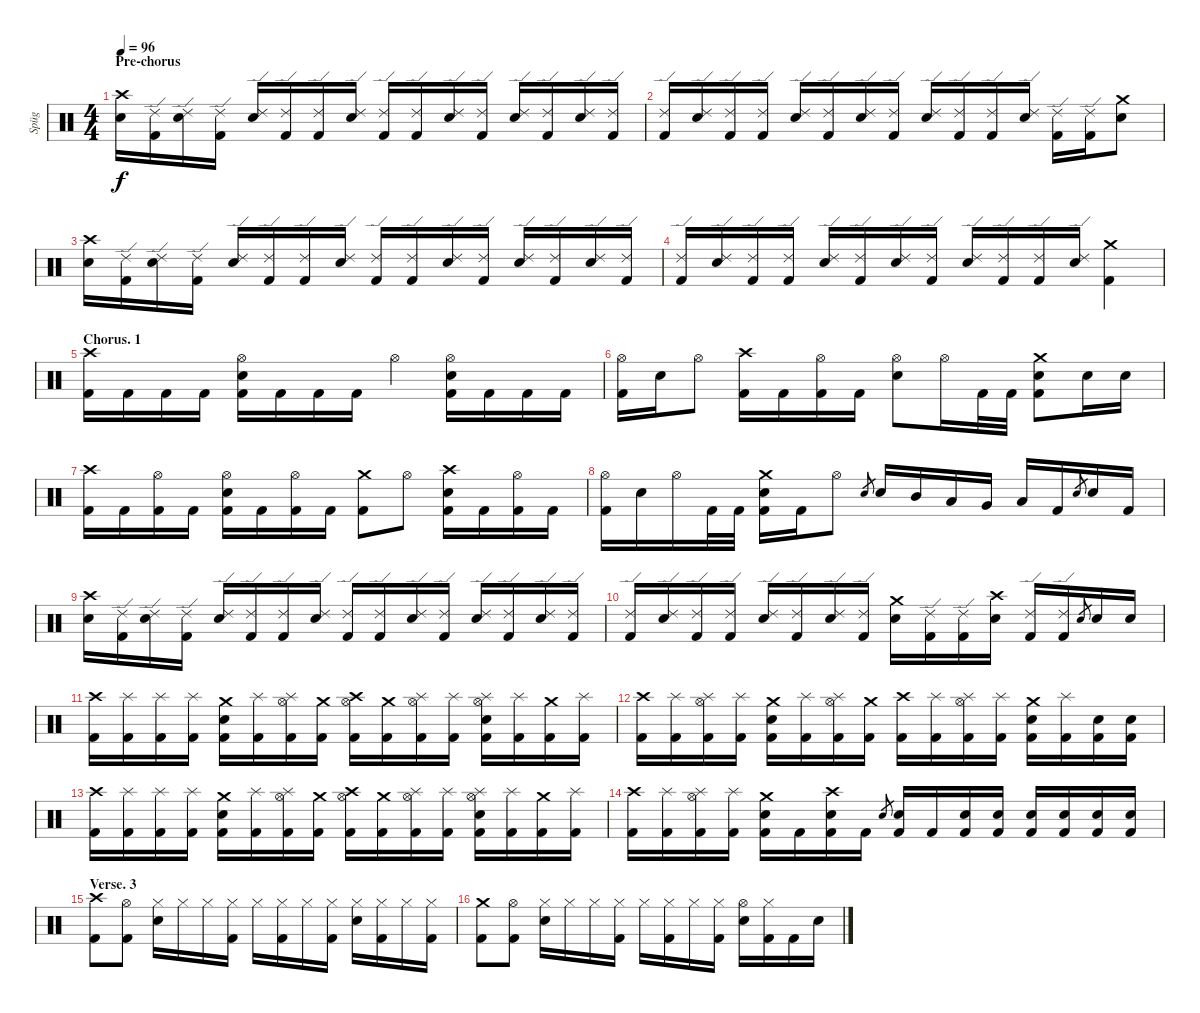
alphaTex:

\track ("Spüg" "Spüg") {instrument percussion}
\staff {score}
\articulation defaults
\ts (4 4)
\section ("" "Pre-chorus")
\tempo 96
\clef neutral
\ks c
("Crash high (hit)" "Electric Snare (hit)").16{dy f} ("Ride (edge) 2" "Kick (hit) 2").16 ("Ride (edge) 2" "Electric Snare (hit)").16 ("Ride (edge) 2" "Kick (hit) 2").16 ("Ride (edge) 2" "Electric Snare (hit)").16 ("Ride (edge) 2" "Kick (hit) 2").16 ("Ride (edge) 2" "Kick (hit) 2").16 ("Ride (edge) 2" "Electric Snare (hit)").16 ("Ride (edge) 2" "Kick (hit) 2").16 ("Ride (edge) 2" "Kick (hit) 2").16 ("Ride (edge) 2" "Electric Snare (hit)").16 ("Ride (edge) 2" "Kick (hit) 2").16 ("Ride (edge) 2" "Electric Snare (hit)").16 ("Ride (edge) 2" "Kick (hit) 2").16 ("Ride (edge) 2" "Electric Snare (hit)").16 ("Ride (edge) 2" "Kick (hit) 2").16 |
("Ride (edge) 2" "Kick (hit) 2").16 ("Ride (edge) 2" "Electric Snare (hit)").16 ("Ride (edge) 2" "Kick (hit) 2").16 ("Ride (edge) 2" "Kick (hit) 2").16 ("Ride (edge) 2" "Electric Snare (hit)").16 ("Ride (edge) 2" "Kick (hit) 2").16 ("Ride (edge) 2" "Electric Snare (hit)").16 ("Ride (edge) 2" "Kick (hit) 2").16 ("Ride (edge) 2" "Electric Snare (hit)").16 ("Ride (edge) 2" "Kick (hit) 2").16 ("Ride (edge) 2" "Kick (hit) 2").16 ("Ride (edge) 2" "Electric Snare (hit)").16 ("Ride (edge) 2" "Kick (hit) 2").16 ("Ride (edge) 2" "Kick (hit) 2").16 ("Crash medium (hit)" "Electric Snare (hit)").8 |
("Crash high (hit)" "Electric Snare (hit)").16 ("Ride (edge) 2" "Kick (hit) 2").16 ("Ride (edge) 2" "Electric Snare (hit)").16 ("Ride (edge) 2" "Kick (hit) 2").16 ("Ride (edge) 2" "Electric Snare (hit)").16 ("Ride (edge) 2" "Kick (hit) 2").16 ("Ride (edge) 2" "Kick (hit) 2").16 ("Ride (edge) 2" "Electric Snare (hit)").16 ("Ride (edge) 2" "Kick (hit) 2").16 ("Ride (edge) 2" "Kick (hit) 2").16 ("Ride (edge) 2" "Electric Snare (hit)").16 ("Ride (edge) 2" "Kick (hit) 2").16 ("Ride (edge) 2" "Electric Snare (hit)").16 ("Ride (edge) 2" "Kick (hit) 2").16 ("Ride (edge) 2" "Electric Snare (hit)").16 ("Ride (edge) 2" "Kick (hit) 2").16 |
("Ride (edge) 2" "Kick (hit) 2").16 ("Ride (edge) 2" "Electric Snare (hit)").16 ("Ride (edge) 2" "Kick (hit) 2").16 ("Ride (edge) 2" "Kick (hit) 2").16 ("Ride (edge) 2" "Electric Snare (hit)").16 ("Ride (edge) 2" "Kick (hit) 2").16 ("Ride (edge) 2" "Electric Snare (hit)").16 ("Ride (edge) 2" "Kick (hit) 2").16 ("Ride (edge) 2" "Electric Snare (hit)").16 ("Ride (edge) 2" "Kick (hit) 2").16 ("Ride (edge) 2" "Kick (hit) 2").16 ("Ride (edge) 2" "Electric Snare (hit)").16 ("Crash medium (hit)" "Kick (hit) 2").4 |
\section ("" "Chorus. 1")
("Crash high (hit)" "Kick (hit) 2").16 "Kick (hit) 2".16 "Kick (hit) 2".16 "Kick (hit) 2".16 ("Hi-Hat (open)" "Electric Snare (hit)" "Kick (hit) 2").16 "Kick (hit) 2".16 "Kick (hit) 2".16 "Kick (hit) 2".16 "Hi-Hat (open)".4 ("Hi-Hat (open)" "Electric Snare (hit)" "Kick (hit) 2").16 "Kick (hit) 2".16 "Kick (hit) 2".16 "Kick (hit) 2".16 |
("Hi-Hat (open)" "Kick (hit) 2").16 "Electric Snare (hit)".16 "Hi-Hat (open)".8 ("Crash high (hit)" "Kick (hit) 2").16 "Kick (hit) 2".16 ("Hi-Hat (open)" "Kick (hit) 2").16 "Kick (hit) 2".16 ("Hi-Hat (open)" "Electric Snare (hit)").8 "Hi-Hat (open)".16 "Kick (hit) 2".32 "Kick (hit) 2".32 ("Crash medium (hit)" "Electric Snare (hit)" "Kick (hit) 2").8 "Electric Snare (hit)".16 "Electric Snare (hit)".16 |
("Crash high (hit)" "Kick (hit) 2").16 "Kick (hit) 2".16 ("Hi-Hat (open)" "Kick (hit) 2").16 "Kick (hit) 2".16 ("Hi-Hat (open)" "Electric Snare (hit)" "Kick (hit) 2").16 "Kick (hit) 2".16 ("Hi-Hat (open)" "Kick (hit) 2").16 "Kick (hit) 2".16 ("Crash medium (hit)" "Kick (hit) 2").8 "Hi-Hat (open)".8 ("Crash high (hit)" "Electric Snare (hit)" "Kick (hit) 2").16 "Kick (hit) 2".16 ("Hi-Hat (open)" "Kick (hit) 2").16 "Kick (hit) 2".16 |
("Hi-Hat (open)" "Kick (hit) 2").16 "Electric Snare (hit)".16 "Hi-Hat (open)".16 "Kick (hit) 2".32 "Kick (hit) 2".32 ("Crash medium (hit)" "Electric Snare (hit)" "Kick (hit) 2").16 "Kick (hit) 2".16 "Hi-Hat (open)".8 "Electric Snare (hit)".8{gr} "Electric Snare (hit)".16 "Mid Tom (hit)".16 "Low Tom (hit)".16 "Very Low Tom (hit)".16 "Low Floor Tom (hit)".16 "Kick (hit) 2".16 "Electric Snare (hit)".8{gr} "Electric Snare (hit)".16 "Kick (hit) 2".16 |
("Crash high (hit)" "Electric Snare (hit)").16 ("Ride (edge) 2" "Kick (hit) 2").16 ("Ride (edge) 2" "Electric Snare (hit)").16 ("Ride (edge) 2" "Kick (hit) 2").16 ("Ride (edge) 2" "Electric Snare (hit)").16 ("Ride (edge) 2" "Kick (hit) 2").16 ("Ride (edge) 2" "Kick (hit) 2").16 ("Ride (edge) 2" "Electric Snare (hit)").16 ("Ride (edge) 2" "Kick (hit) 2").16 ("Ride (edge) 2" "Kick (hit) 2").16 ("Ride (edge) 2" "Electric Snare (hit)").16 ("Ride (edge) 2" "Kick (hit) 2").16 ("Ride (edge) 2" "Electric Snare (hit)").16 ("Ride (edge) 2" "Kick (hit) 2").16 ("Ride (edge) 2" "Electric Snare (hit)").16 ("Ride (edge) 2" "Kick (hit) 2").16 |
("Ride (edge) 2" "Kick (hit) 2").16 ("Ride (edge) 2" "Electric Snare (hit)").16 ("Ride (edge) 2" "Kick (hit) 2").16 ("Ride (edge) 2" "Kick (hit) 2").16 ("Ride (edge) 2" "Electric Snare (hit)").16 ("Ride (edge) 2" "Kick (hit) 2").16 ("Ride (edge) 2" "Electric Snare (hit)").16 ("Ride (edge) 2" "Kick (hit) 2").16 ("Crash medium (hit)" "Electric Snare (hit)").16 ("Ride (edge) 2" "Kick (hit) 2").16 ("Ride (edge) 2" "Kick (hit) 2").16 ("Crash high (hit)" "Electric Snare (hit)").16 ("Ride (edge) 2" "Kick (hit) 2").16 ("Ride (edge) 2" "Kick (hit) 2").16 "Electric Snare (hit)".8{gr} "Electric Snare (hit)".16 "Electric Snare (hit)".16 |
("Crash high (hit)" "Kick (hit) 2").16 ("Splash (hit)" "Kick (hit) 2").16 ("Splash (hit)" "Kick (hit) 2").16 ("Splash (hit)" "Kick (hit) 2").16 ("Crash medium (hit)" "Electric Snare (hit)" "Kick (hit) 2").16 ("Splash (hit)" "Kick (hit) 2").16 ("Hi-Hat (open)" "Splash (hit)" "Kick (hit) 2").16 ("Crash medium (hit)" "Kick (hit) 2").16 ("Crash high (hit)" "Hi-Hat (open)" "Kick (hit) 2").16 ("Crash medium (hit)" "Kick (hit) 2").16 ("Hi-Hat (open)" "Splash (hit)" "Kick (hit) 2").16 ("Splash (hit)" "Kick (hit) 2").16 ("Hi-Hat (open)" "Splash (hit)" "Electric Snare (hit)" "Kick (hit) 2").16 ("Splash (hit)" "Kick (hit) 2").16 ("Crash medium (hit)" "Kick (hit) 2").16 ("Splash (hit)" "Kick (hit) 2").16 |
("Crash high (hit)" "Kick (hit) 2").16 ("Splash (hit)" "Kick (hit) 2").16 ("Hi-Hat (open)" "Splash (hit)" "Kick (hit) 2").16 ("Splash (hit)" "Kick (hit) 2").16 ("Crash medium (hit)" "Electric Snare (hit)" "Kick (hit) 2").16 ("Splash (hit)" "Kick (hit) 2").16 ("Hi-Hat (open)" "Splash (hit)" "Kick (hit) 2").16 ("Crash medium (hit)" "Kick (hit) 2").16 ("Crash high (hit)" "Kick (hit) 2").16 ("Splash (hit)" "Kick (hit) 2").16 ("Hi-Hat (open)" "Splash (hit)" "Kick (hit) 2").16 ("Splash (hit)" "Kick (hit) 2").16 ("Crash medium (hit)" "Electric Snare (hit)" "Kick (hit) 2").16 ("Splash (hit)" "Kick (hit) 2").16 ("Electric Snare (hit)" "Kick (hit) 2").16 ("Electric Snare (hit)" "Kick (hit) 2").16 |
("Crash high (hit)" "Kick (hit) 2").16 ("Splash (hit)" "Kick (hit) 2").16 ("Splash (hit)" "Kick (hit) 2").16 ("Splash (hit)" "Kick (hit) 2").16 ("Crash medium (hit)" "Electric Snare (hit)" "Kick (hit) 2").16 ("Splash (hit)" "Kick (hit) 2").16 ("Hi-Hat (open)" "Splash (hit)" "Kick (hit) 2").16 ("Crash medium (hit)" "Kick (hit) 2").16 ("Crash high (hit)" "Hi-Hat (open)" "Kick (hit) 2").16 ("Crash medium (hit)" "Kick (hit) 2").16 ("Hi-Hat (open)" "Splash (hit)" "Kick (hit) 2").16 ("Splash (hit)" "Kick (hit) 2").16 ("Hi-Hat (open)" "Splash (hit)" "Electric Snare (hit)" "Kick (hit) 2").16 ("Splash (hit)" "Kick (hit) 2").16 ("Crash medium (hit)" "Kick (hit) 2").16 ("Splash (hit)" "Kick (hit) 2").16 |
("Crash high (hit)" "Kick (hit) 2").16 ("Splash (hit)" "Kick (hit) 2").16 ("Hi-Hat (open)" "Splash (hit)" "Kick (hit) 2").16 ("Splash (hit)" "Kick (hit) 2").16 ("Crash medium (hit)" "Electric Snare (hit)" "Kick (hit) 2").16 "Kick (hit) 2".16 ("Crash high (hit)" "Electric Snare (hit)" "Kick (hit) 2").16 "Kick (hit) 2".16 "Electric Snare (hit)".8{gr} ("Electric Snare (hit)" "Kick (hit) 2").16 "Kick (hit) 2".16 ("Electric Snare (hit)" "Kick (hit) 2").16 ("Electric Snare (hit)" "Kick (hit) 2").16 ("Electric Snare (hit)" "Kick (hit) 2").16 ("Electric Snare (hit)" "Kick (hit) 2").16 ("Electric Snare (hit)" "Kick (hit) 2").16 ("Electric Snare (hit)" "Kick (hit) 2").16 |
\section ("" "Verse. 3")
("Crash high (hit)" "Kick (hit) 2").8 ("Hi-Hat (open)" "Kick (hit) 2").8 ("Hi-Hat (closed)" "Electric Snare (hit)").16 "Hi-Hat (closed)".16 "Hi-Hat (closed)".16 ("Hi-Hat (closed)" "Kick (hit) 2").16 "Hi-Hat (closed)".16 ("Hi-Hat (closed)" "Kick (hit) 2").16 "Hi-Hat (closed)".16 ("Hi-Hat (closed)" "Kick (hit) 2").16 ("Hi-Hat (closed)" "Electric Snare (hit)").16 ("Hi-Hat (closed)" "Kick (hit) 2").16 "Hi-Hat (closed)".16 ("Hi-Hat (closed)" "Kick (hit) 2").16 |
("Crash medium (hit)" "Kick (hit) 2").8 ("Hi-Hat (open)" "Kick (hit) 2").8 ("Hi-Hat (closed)" "Electric Snare (hit)").16 "Hi-Hat (closed)".16 "Hi-Hat (closed)".16 ("Hi-Hat (closed)" "Kick (hit) 2").16 "Hi-Hat (closed)".16 ("Hi-Hat (closed)" "Kick (hit) 2").16 "Hi-Hat (closed)".16 ("Hi-Hat (closed)" "Kick (hit) 2").16 ("Hi-Hat (open)" "Electric Snare (hit)").16 ("Hi-Hat (closed)" "Kick (hit) 2").16 "Kick (hit) 2".16 "Electric Snare (hit)".16
